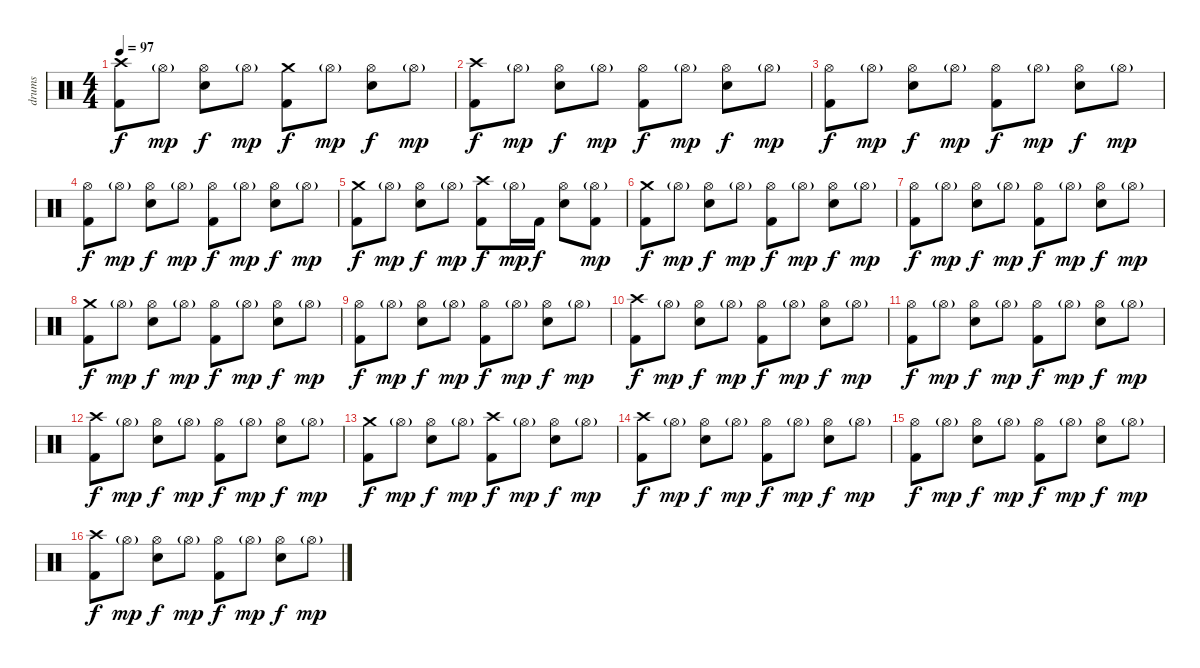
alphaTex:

\track ("drums" "drums") {instrument percussion}
\staff {score}
\articulation defaults
\ts (4 4)
\tempo 97
\clef neutral
\ks c
("Crash high (hit)" "Kick (hit) 2").8{dy f} "Hi-Hat (open)"{g}.8{dy mp} ("Hi-Hat (open)" "Electric Snare (hit)").8{dy f} "Hi-Hat (open)"{g}.8{dy mp} ("Crash medium (hit)" "Kick (hit) 2").8{dy f} "Hi-Hat (open)"{g}.8{dy mp} ("Hi-Hat (open)" "Electric Snare (hit)").8{dy f} "Hi-Hat (open)"{g}.8{dy mp} |
("Crash high (hit)" "Kick (hit) 2").8{dy f} "Hi-Hat (open)"{g}.8{dy mp} ("Hi-Hat (open)" "Electric Snare (hit)").8{dy f} "Hi-Hat (open)"{g}.8{dy mp} ("Hi-Hat (open)" "Kick (hit) 2").8{dy f} "Hi-Hat (open)"{g}.8{dy mp} ("Hi-Hat (open)" "Electric Snare (hit)").8{dy f} "Hi-Hat (open)"{g}.8{dy mp} |
("Hi-Hat (open)" "Kick (hit) 2").8{dy f} "Hi-Hat (open)"{g}.8{dy mp} ("Hi-Hat (open)" "Electric Snare (hit)").8{dy f} "Hi-Hat (open)"{g}.8{dy mp} ("Hi-Hat (open)" "Kick (hit) 2").8{dy f} "Hi-Hat (open)"{g}.8{dy mp} ("Hi-Hat (open)" "Electric Snare (hit)").8{dy f} "Hi-Hat (open)"{g}.8{dy mp} |
("Hi-Hat (open)" "Kick (hit) 2").8{dy f} "Hi-Hat (open)"{g}.8{dy mp} ("Hi-Hat (open)" "Electric Snare (hit)").8{dy f} "Hi-Hat (open)"{g}.8{dy mp} ("Hi-Hat (open)" "Kick (hit) 2").8{dy f} "Hi-Hat (open)"{g}.8{dy mp} ("Hi-Hat (open)" "Electric Snare (hit)").8{dy f} "Hi-Hat (open)"{g}.8{dy mp} |
("Crash medium (hit)" "Kick (hit) 2").8{dy f} "Hi-Hat (open)"{g}.8{dy mp} ("Hi-Hat (open)" "Electric Snare (hit)").8{dy f} "Hi-Hat (open)"{g}.8{dy mp} ("Crash high (hit)" "Kick (hit) 2").8{dy f} "Hi-Hat (open)"{g}.16{dy mp} "Kick (hit) 2".16{dy f} ("Hi-Hat (open)" "Electric Snare (hit)").8 ("Hi-Hat (open)"{g} "Kick (hit) 2").8{dy mp} |
("Crash medium (hit)" "Kick (hit) 2").8{dy f} "Hi-Hat (open)"{g}.8{dy mp} ("Hi-Hat (open)" "Electric Snare (hit)").8{dy f} "Hi-Hat (open)"{g}.8{dy mp} ("Hi-Hat (open)" "Kick (hit) 2").8{dy f} "Hi-Hat (open)"{g}.8{dy mp} ("Hi-Hat (open)" "Electric Snare (hit)").8{dy f} "Hi-Hat (open)"{g}.8{dy mp} |
("Hi-Hat (open)" "Kick (hit) 2").8{dy f} "Hi-Hat (open)"{g}.8{dy mp} ("Hi-Hat (open)" "Electric Snare (hit)").8{dy f} "Hi-Hat (open)"{g}.8{dy mp} ("Hi-Hat (open)" "Kick (hit) 2").8{dy f} "Hi-Hat (open)"{g}.8{dy mp} ("Hi-Hat (open)" "Electric Snare (hit)").8{dy f} "Hi-Hat (open)"{g}.8{dy mp} |
("Crash medium (hit)" "Kick (hit) 2").8{dy f} "Hi-Hat (open)"{g}.8{dy mp} ("Hi-Hat (open)" "Electric Snare (hit)").8{dy f} "Hi-Hat (open)"{g}.8{dy mp} ("Hi-Hat (open)" "Kick (hit) 2").8{dy f} "Hi-Hat (open)"{g}.8{dy mp} ("Hi-Hat (open)" "Electric Snare (hit)").8{dy f} "Hi-Hat (open)"{g}.8{dy mp} |
("Hi-Hat (open)" "Kick (hit) 2").8{dy f} "Hi-Hat (open)"{g}.8{dy mp} ("Hi-Hat (open)" "Electric Snare (hit)").8{dy f} "Hi-Hat (open)"{g}.8{dy mp} ("Hi-Hat (open)" "Kick (hit) 2").8{dy f} "Hi-Hat (open)"{g}.8{dy mp} ("Hi-Hat (open)" "Electric Snare (hit)").8{dy f} "Hi-Hat (open)"{g}.8{dy mp} |
("Crash high (hit)" "Kick (hit) 2").8{dy f} "Hi-Hat (open)"{g}.8{dy mp} ("Hi-Hat (open)" "Electric Snare (hit)").8{dy f} "Hi-Hat (open)"{g}.8{dy mp} ("Hi-Hat (open)" "Kick (hit) 2").8{dy f} "Hi-Hat (open)"{g}.8{dy mp} ("Hi-Hat (open)" "Electric Snare (hit)").8{dy f} "Hi-Hat (open)"{g}.8{dy mp} |
("Hi-Hat (open)" "Kick (hit) 2").8{dy f} "Hi-Hat (open)"{g}.8{dy mp} ("Hi-Hat (open)" "Electric Snare (hit)").8{dy f} "Hi-Hat (open)"{g}.8{dy mp} ("Hi-Hat (open)" "Kick (hit) 2").8{dy f} "Hi-Hat (open)"{g}.8{dy mp} ("Hi-Hat (open)" "Electric Snare (hit)").8{dy f} "Hi-Hat (open)"{g}.8{dy mp} |
("Crash high (hit)" "Kick (hit) 2").8{dy f} "Hi-Hat (open)"{g}.8{dy mp} ("Hi-Hat (open)" "Electric Snare (hit)").8{dy f} "Hi-Hat (open)"{g}.8{dy mp} ("Hi-Hat (open)" "Kick (hit) 2").8{dy f} "Hi-Hat (open)"{g}.8{dy mp} ("Hi-Hat (open)" "Electric Snare (hit)").8{dy f} "Hi-Hat (open)"{g}.8{dy mp} |
("Crash medium (hit)" "Kick (hit) 2").8{dy f} "Hi-Hat (open)"{g}.8{dy mp} ("Hi-Hat (open)" "Electric Snare (hit)").8{dy f} "Hi-Hat (open)"{g}.8{dy mp} ("Crash high (hit)" "Kick (hit) 2").8{dy f} "Hi-Hat (open)"{g}.8{dy mp} ("Hi-Hat (open)" "Electric Snare (hit)").8{dy f} "Hi-Hat (open)"{g}.8{dy mp} |
("Crash high (hit)" "Kick (hit) 2").8{dy f} "Hi-Hat (open)"{g}.8{dy mp} ("Hi-Hat (open)" "Electric Snare (hit)").8{dy f} "Hi-Hat (open)"{g}.8{dy mp} ("Hi-Hat (open)" "Kick (hit) 2").8{dy f} "Hi-Hat (open)"{g}.8{dy mp} ("Hi-Hat (open)" "Electric Snare (hit)").8{dy f} "Hi-Hat (open)"{g}.8{dy mp} |
("Hi-Hat (open)" "Kick (hit) 2").8{dy f} "Hi-Hat (open)"{g}.8{dy mp} ("Hi-Hat (open)" "Electric Snare (hit)").8{dy f} "Hi-Hat (open)"{g}.8{dy mp} ("Hi-Hat (open)" "Kick (hit) 2").8{dy f} "Hi-Hat (open)"{g}.8{dy mp} ("Hi-Hat (open)" "Electric Snare (hit)").8{dy f} "Hi-Hat (open)"{g}.8{dy mp} |
("Crash high (hit)" "Kick (hit) 2").8{dy f} "Hi-Hat (open)"{g}.8{dy mp} ("Hi-Hat (open)" "Electric Snare (hit)").8{dy f} "Hi-Hat (open)"{g}.8{dy mp} ("Hi-Hat (open)" "Kick (hit) 2").8{dy f} "Hi-Hat (open)"{g}.8{dy mp} ("Hi-Hat (open)" "Electric Snare (hit)").8{dy f} "Hi-Hat (open)"{g}.8{dy mp}
